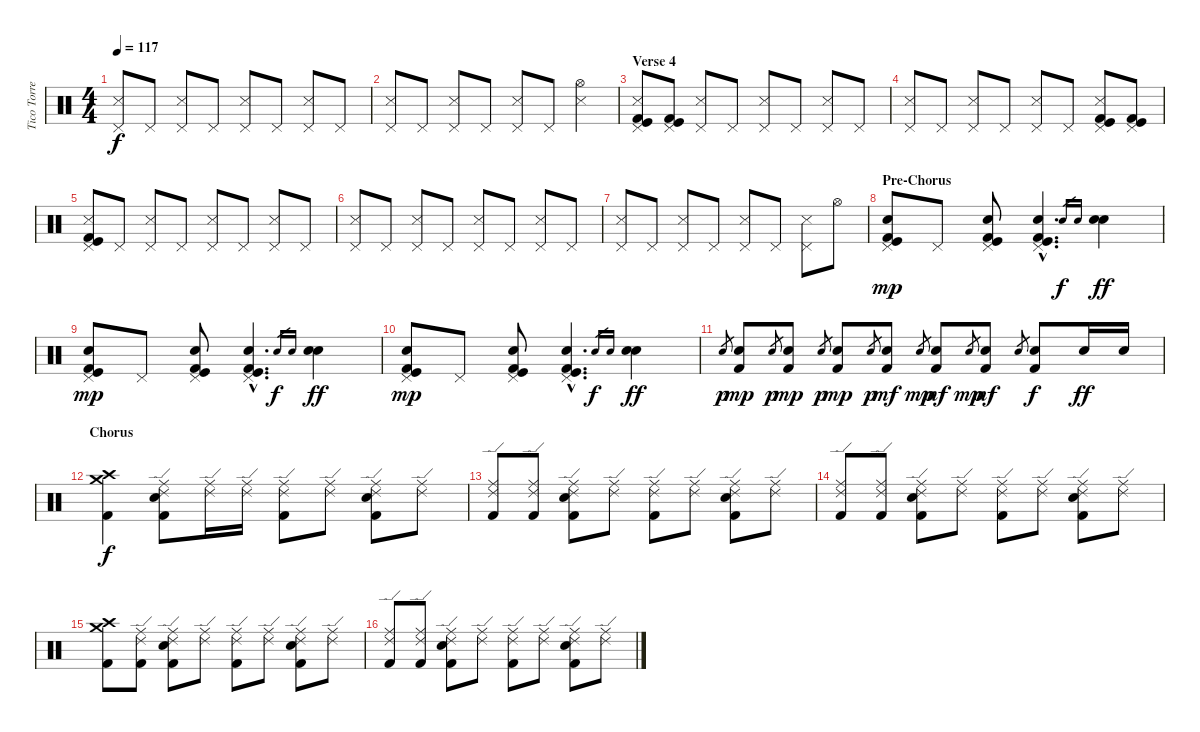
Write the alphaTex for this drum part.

\track ("Tico Torres" "Tico Torre") {instrument percussion}
\staff {score}
\articulation defaults
\ts (4 4)
\tempo 117
\clef neutral
\ks c
("Snare (side stick) 3" "Pedal Hi-Hat (hit)").8{dy f} "Pedal Hi-Hat (hit)".8 ("Snare (side stick) 3" "Pedal Hi-Hat (hit)").8 "Pedal Hi-Hat (hit)".8 ("Snare (side stick) 3" "Pedal Hi-Hat (hit)").8 "Pedal Hi-Hat (hit)".8 ("Snare (side stick) 3" "Pedal Hi-Hat (hit)").8 "Pedal Hi-Hat (hit)".8 |
("Snare (side stick) 3" "Pedal Hi-Hat (hit)").8 "Pedal Hi-Hat (hit)".8 ("Snare (side stick) 3" "Pedal Hi-Hat (hit)").8 "Pedal Hi-Hat (hit)".8 ("Snare (side stick) 3" "Pedal Hi-Hat (hit)").8 "Pedal Hi-Hat (hit)".8 ("Snare (side stick) 3" "Hi-Hat (open)").4 |
\section ("" "Verse 4")
("Snare (side stick) 3" "Pedal Hi-Hat (hit)" "Kick (hit)" "Kick (hit) 2").8 ("Pedal Hi-Hat (hit)" "Kick (hit)" "Kick (hit) 2").8 ("Snare (side stick) 3" "Pedal Hi-Hat (hit)").8 "Pedal Hi-Hat (hit)".8 ("Snare (side stick) 3" "Pedal Hi-Hat (hit)").8 "Pedal Hi-Hat (hit)".8 ("Snare (side stick) 3" "Pedal Hi-Hat (hit)").8 "Pedal Hi-Hat (hit)".8 |
("Snare (side stick) 3" "Pedal Hi-Hat (hit)").8 "Pedal Hi-Hat (hit)".8 ("Snare (side stick) 3" "Pedal Hi-Hat (hit)").8 "Pedal Hi-Hat (hit)".8 ("Snare (side stick) 3" "Pedal Hi-Hat (hit)").8 "Pedal Hi-Hat (hit)".8 ("Snare (side stick) 3" "Pedal Hi-Hat (hit)" "Kick (hit)" "Kick (hit) 2").8 ("Pedal Hi-Hat (hit)" "Kick (hit)" "Kick (hit) 2").8 |
("Snare (side stick) 3" "Pedal Hi-Hat (hit)" "Kick (hit)" "Kick (hit) 2").8 "Pedal Hi-Hat (hit)".8 ("Snare (side stick) 3" "Pedal Hi-Hat (hit)").8 "Pedal Hi-Hat (hit)".8 ("Snare (side stick) 3" "Pedal Hi-Hat (hit)").8 "Pedal Hi-Hat (hit)".8 ("Snare (side stick) 3" "Pedal Hi-Hat (hit)").8 "Pedal Hi-Hat (hit)".8 |
("Snare (side stick) 3" "Pedal Hi-Hat (hit)").8 "Pedal Hi-Hat (hit)".8 ("Snare (side stick) 3" "Pedal Hi-Hat (hit)").8 "Pedal Hi-Hat (hit)".8 ("Snare (side stick) 3" "Pedal Hi-Hat (hit)").8 "Pedal Hi-Hat (hit)".8 ("Snare (side stick) 3" "Pedal Hi-Hat (hit)").8 "Pedal Hi-Hat (hit)".8 |
("Snare (side stick) 3" "Pedal Hi-Hat (hit)").8 "Pedal Hi-Hat (hit)".8 ("Snare (side stick) 3" "Pedal Hi-Hat (hit)").8 "Pedal Hi-Hat (hit)".8 ("Snare (side stick) 3" "Pedal Hi-Hat (hit)").8 "Pedal Hi-Hat (hit)".8 ("Snare (side stick) 3" "Pedal Hi-Hat (hit)").8 "Hi-Hat (open)".8 |
\section ("" "Pre-Chorus")
("Kick (hit)" "Kick (hit) 2" "Snare (hit) 2" "Pedal Hi-Hat (hit)").8{dy mp} "Pedal Hi-Hat (hit)".8 ("Kick (hit)" "Kick (hit) 2" "Snare (hit) 2" "Pedal Hi-Hat (hit)").8 ("Kick (hit)"{hac} "Kick (hit) 2"{hac} "Snare (hit) 2"{hac} "Pedal Hi-Hat (hit)"{hac}).4{d} "Electric Snare (hit)".16{gr dy f} "Electric Snare (hit)".16{gr} ("Electric Snare (hit)" "Electric Snare (hit)").4{dy ff} |
("Kick (hit)" "Kick (hit) 2" "Snare (hit) 2" "Pedal Hi-Hat (hit)").8{dy mp} "Pedal Hi-Hat (hit)".8 ("Kick (hit)" "Kick (hit) 2" "Snare (hit) 2" "Pedal Hi-Hat (hit)").8 ("Kick (hit)"{hac} "Kick (hit) 2"{hac} "Snare (hit) 2"{hac} "Pedal Hi-Hat (hit)"{hac}).4{d} "Electric Snare (hit)".16{gr dy f} "Electric Snare (hit)".16{gr} ("Electric Snare (hit)" "Electric Snare (hit)").4{dy ff} |
("Kick (hit)" "Kick (hit) 2" "Snare (hit) 2" "Pedal Hi-Hat (hit)").8{dy mp} "Pedal Hi-Hat (hit)".8 ("Kick (hit)" "Kick (hit) 2" "Snare (hit) 2" "Pedal Hi-Hat (hit)").8 ("Kick (hit)"{hac} "Kick (hit) 2"{hac} "Snare (hit) 2"{hac} "Pedal Hi-Hat (hit)"{hac}).4{d} "Electric Snare (hit)".16{gr dy f} "Electric Snare (hit)".16{gr} ("Electric Snare (hit)" "Electric Snare (hit)").4{dy ff} |
"Electric Snare (hit)".8{gr dy p} ("Electric Snare (hit)" "Kick (hit) 2").8{dy mp} "Electric Snare (hit)".8{gr dy p} ("Electric Snare (hit)" "Kick (hit) 2").8{dy mp} "Electric Snare (hit)".8{gr dy p} ("Electric Snare (hit)" "Kick (hit) 2").8{dy mp} "Electric Snare (hit)".8{gr dy p} ("Electric Snare (hit)" "Kick (hit) 2").8{dy mf} "Electric Snare (hit)".8{gr dy mp} ("Electric Snare (hit)" "Kick (hit) 2").8{dy mf} "Electric Snare (hit)".8{gr dy mp} ("Electric Snare (hit)" "Kick (hit) 2").8{dy mf} "Electric Snare (hit)".8{gr} ("Electric Snare (hit)" "Kick (hit) 2").8{dy f} "Electric Snare (hit)".16{dy ff} "Electric Snare (hit)".16 |
\section ("" "Chorus")
("Crash high (hit)" "Crash medium (hit)" "Kick (hit) 2").4{dy f} ("Ride (middle)" "Ride (edge) 2" "Electric Snare (hit)" "Kick (hit) 2").8 ("Ride (middle)" "Ride (edge) 2").16 ("Ride (middle)" "Ride (edge) 2").16 ("Ride (middle)" "Ride (edge) 2" "Kick (hit) 2").8 ("Ride (middle)" "Ride (edge) 2").8 ("Ride (middle)" "Ride (edge) 2" "Electric Snare (hit)" "Kick (hit) 2").8 ("Ride (middle)" "Ride (edge) 2").8 |
("Ride (middle)" "Ride (edge) 2" "Kick (hit) 2").8 ("Ride (middle)" "Ride (edge) 2" "Kick (hit) 2").8 ("Ride (middle)" "Ride (edge) 2" "Electric Snare (hit)" "Kick (hit) 2").8 ("Ride (middle)" "Ride (edge) 2").8 ("Ride (middle)" "Ride (edge) 2" "Kick (hit) 2").8 ("Ride (middle)" "Ride (edge) 2").8 ("Ride (middle)" "Ride (edge) 2" "Electric Snare (hit)" "Kick (hit) 2").8 ("Ride (middle)" "Ride (edge) 2").8 |
("Ride (middle)" "Ride (edge) 2" "Kick (hit) 2").8 ("Ride (middle)" "Ride (edge) 2" "Kick (hit) 2").8 ("Ride (middle)" "Ride (edge) 2" "Electric Snare (hit)" "Kick (hit) 2").8 ("Ride (middle)" "Ride (edge) 2").8 ("Ride (middle)" "Ride (edge) 2" "Kick (hit) 2").8 ("Ride (middle)" "Ride (edge) 2").8 ("Ride (middle)" "Ride (edge) 2" "Electric Snare (hit)" "Kick (hit) 2").8 ("Ride (middle)" "Ride (edge) 2").8 |
("Crash high (hit)" "Crash medium (hit)" "Kick (hit) 2").8 ("Ride (middle)" "Ride (edge) 2" "Kick (hit) 2").8 ("Ride (middle)" "Ride (edge) 2" "Electric Snare (hit)" "Kick (hit) 2").8 ("Ride (middle)" "Ride (edge) 2").8 ("Ride (middle)" "Ride (edge) 2" "Kick (hit) 2").8 ("Ride (middle)" "Ride (edge) 2").8 ("Ride (middle)" "Ride (edge) 2" "Electric Snare (hit)" "Kick (hit) 2").8 ("Ride (middle)" "Ride (edge) 2").8 |
("Ride (middle)" "Ride (edge) 2" "Kick (hit) 2").8 ("Ride (middle)" "Ride (edge) 2" "Kick (hit) 2").8 ("Ride (middle)" "Ride (edge) 2" "Electric Snare (hit)" "Kick (hit) 2").8 ("Ride (middle)" "Ride (edge) 2").8 ("Ride (middle)" "Ride (edge) 2" "Kick (hit) 2").8 ("Ride (middle)" "Ride (edge) 2").8 ("Ride (middle)" "Ride (edge) 2" "Electric Snare (hit)" "Kick (hit) 2").8 ("Ride (middle)" "Ride (edge) 2").8
